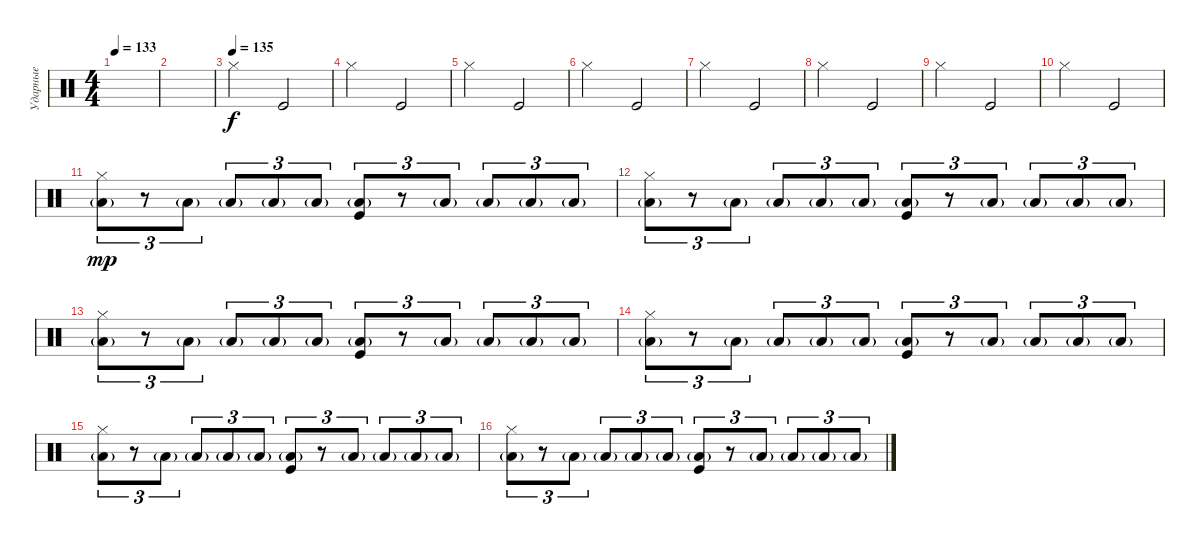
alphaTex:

\track ("Ударные" "Ударные") {instrument percussion}
\staff {score}
\articulation defaults
\ts (4 4)
\tempo 133
\clef neutral
\ks c
|
|
\tempo (135)
"Hi-Hat (closed)".2 "Kick (hit)".2 |
"Hi-Hat (closed)".2 "Kick (hit)".2 |
"Hi-Hat (closed)".2 "Kick (hit)".2 |
"Hi-Hat (closed)".2 "Kick (hit)".2 |
"Hi-Hat (closed)".2 "Kick (hit)".2 |
"Hi-Hat (closed)".2 "Kick (hit)".2 |
"Hi-Hat (closed)".2 "Kick (hit)".2 |
"Hi-Hat (closed)".2 "Kick (hit)".2 |
("Hi-Hat (closed)" "Low Floor Tom (hit)"{g}).8{tu (3 2) dy mp} r.8{tu (3 2)} "Low Floor Tom (hit)"{g}.8{tu (3 2)} "Low Floor Tom (hit)"{g}.8{tu (3 2)} "Low Floor Tom (hit)"{g}.8{tu (3 2)} "Low Floor Tom (hit)"{g}.8{tu (3 2)} ("Low Floor Tom (hit)"{g} "Kick (hit)").8{tu (3 2)} r.8{tu (3 2)} "Low Floor Tom (hit)"{g}.8{tu (3 2)} "Low Floor Tom (hit)"{g}.8{tu (3 2)} "Low Floor Tom (hit)"{g}.8{tu (3 2)} "Low Floor Tom (hit)"{g}.8{tu (3 2)} |
("Hi-Hat (closed)" "Low Floor Tom (hit)"{g}).8{tu (3 2)} r.8{tu (3 2)} "Low Floor Tom (hit)"{g}.8{tu (3 2)} "Low Floor Tom (hit)"{g}.8{tu (3 2)} "Low Floor Tom (hit)"{g}.8{tu (3 2)} "Low Floor Tom (hit)"{g}.8{tu (3 2)} ("Low Floor Tom (hit)"{g} "Kick (hit)").8{tu (3 2)} r.8{tu (3 2)} "Low Floor Tom (hit)"{g}.8{tu (3 2)} "Low Floor Tom (hit)"{g}.8{tu (3 2)} "Low Floor Tom (hit)"{g}.8{tu (3 2)} "Low Floor Tom (hit)"{g}.8{tu (3 2)} |
("Hi-Hat (closed)" "Low Floor Tom (hit)"{g}).8{tu (3 2)} r.8{tu (3 2)} "Low Floor Tom (hit)"{g}.8{tu (3 2)} "Low Floor Tom (hit)"{g}.8{tu (3 2)} "Low Floor Tom (hit)"{g}.8{tu (3 2)} "Low Floor Tom (hit)"{g}.8{tu (3 2)} ("Low Floor Tom (hit)"{g} "Kick (hit)").8{tu (3 2)} r.8{tu (3 2)} "Low Floor Tom (hit)"{g}.8{tu (3 2)} "Low Floor Tom (hit)"{g}.8{tu (3 2)} "Low Floor Tom (hit)"{g}.8{tu (3 2)} "Low Floor Tom (hit)"{g}.8{tu (3 2)} |
("Hi-Hat (closed)" "Low Floor Tom (hit)"{g}).8{tu (3 2)} r.8{tu (3 2)} "Low Floor Tom (hit)"{g}.8{tu (3 2)} "Low Floor Tom (hit)"{g}.8{tu (3 2)} "Low Floor Tom (hit)"{g}.8{tu (3 2)} "Low Floor Tom (hit)"{g}.8{tu (3 2)} ("Low Floor Tom (hit)"{g} "Kick (hit)").8{tu (3 2)} r.8{tu (3 2)} "Low Floor Tom (hit)"{g}.8{tu (3 2)} "Low Floor Tom (hit)"{g}.8{tu (3 2)} "Low Floor Tom (hit)"{g}.8{tu (3 2)} "Low Floor Tom (hit)"{g}.8{tu (3 2)} |
("Hi-Hat (closed)" "Low Floor Tom (hit)"{g}).8{tu (3 2)} r.8{tu (3 2)} "Low Floor Tom (hit)"{g}.8{tu (3 2)} "Low Floor Tom (hit)"{g}.8{tu (3 2)} "Low Floor Tom (hit)"{g}.8{tu (3 2)} "Low Floor Tom (hit)"{g}.8{tu (3 2)} ("Low Floor Tom (hit)"{g} "Kick (hit)").8{tu (3 2)} r.8{tu (3 2)} "Low Floor Tom (hit)"{g}.8{tu (3 2)} "Low Floor Tom (hit)"{g}.8{tu (3 2)} "Low Floor Tom (hit)"{g}.8{tu (3 2)} "Low Floor Tom (hit)"{g}.8{tu (3 2)} |
("Hi-Hat (closed)" "Low Floor Tom (hit)"{g}).8{tu (3 2)} r.8{tu (3 2)} "Low Floor Tom (hit)"{g}.8{tu (3 2)} "Low Floor Tom (hit)"{g}.8{tu (3 2)} "Low Floor Tom (hit)"{g}.8{tu (3 2)} "Low Floor Tom (hit)"{g}.8{tu (3 2)} ("Low Floor Tom (hit)"{g} "Kick (hit)").8{tu (3 2)} r.8{tu (3 2)} "Low Floor Tom (hit)"{g}.8{tu (3 2)} "Low Floor Tom (hit)"{g}.8{tu (3 2)} "Low Floor Tom (hit)"{g}.8{tu (3 2)} "Low Floor Tom (hit)"{g}.8{tu (3 2)}
